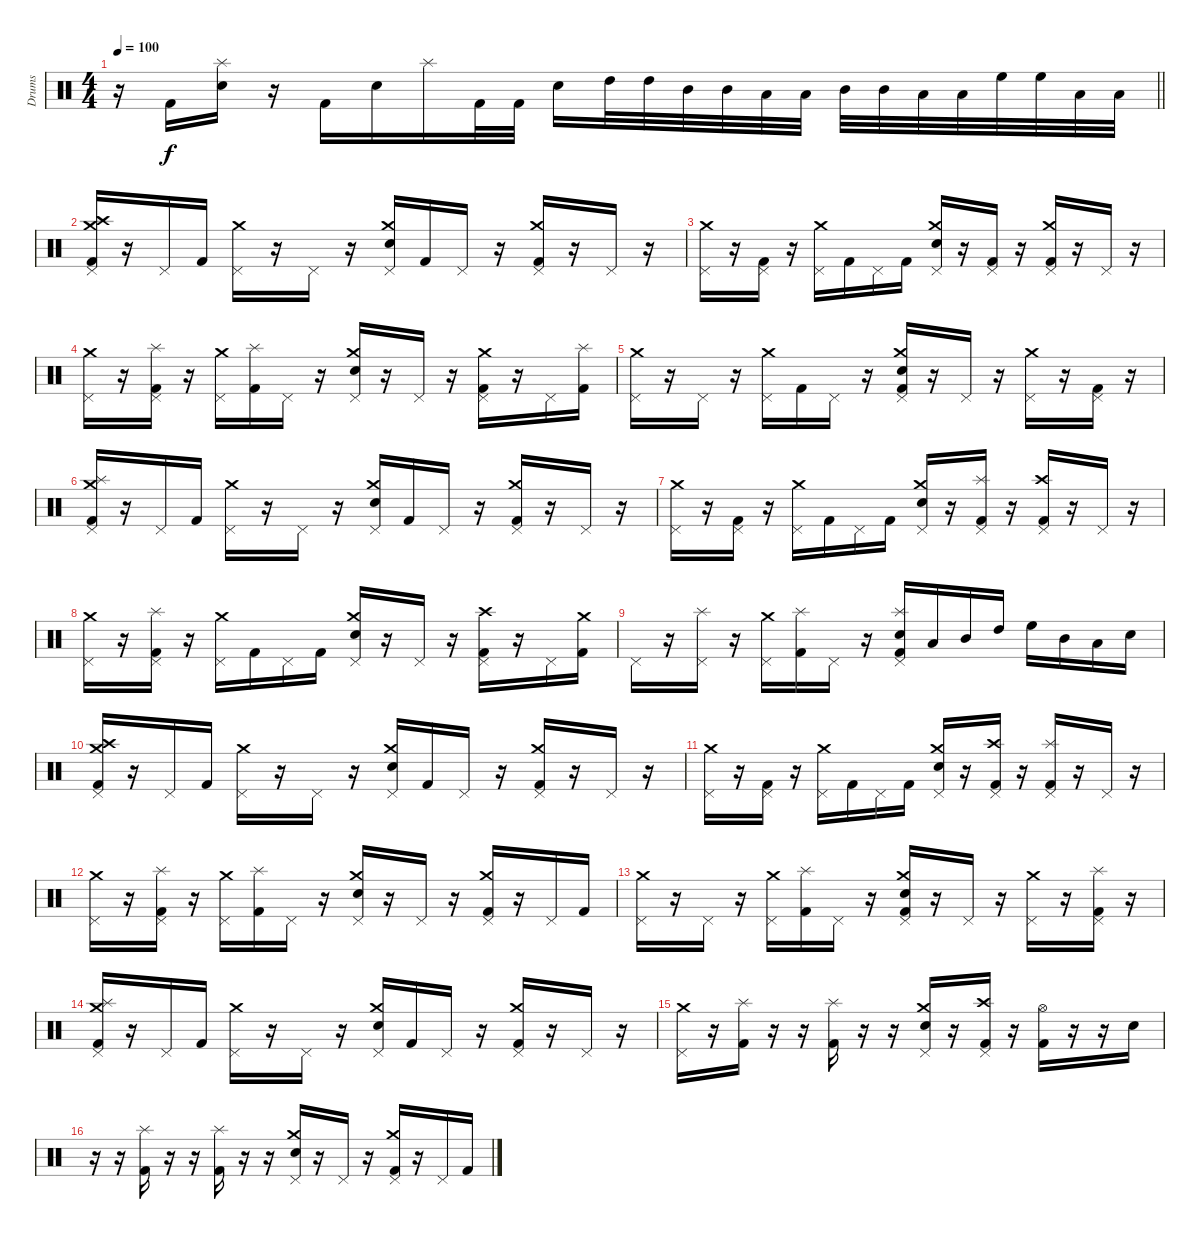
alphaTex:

\track ("Drums" "Drums") {instrument percussion}
\staff {score}
\articulation defaults
\ts (4 4)
\tempo 100
\clef neutral
\barLineRight lightlight
\ks c
r.16{dy f} "Kick (hit) 2".16 ("Splash (hit)" "Electric Snare (hit)").16 r.16 "Kick (hit) 2".16 "Electric Snare (hit)".16 "Splash (hit)".16 "Kick (hit) 2".32 "Kick (hit) 2".32 "Electric Snare (hit)".16 "High Tom (hit)".32 "High Tom (hit)".32 "Mid Tom (hit)".32 "Mid Tom (hit)".32 "Low Tom (hit)".32 "Low Tom (hit)".32 "Mid Tom (hit)".32 "Mid Tom (hit)".32 "Low Tom (hit)".32 "Low Tom (hit)".32 "High Floor Tom (hit)".32 "High Floor Tom (hit)".32 "Low Floor Tom (hit)".32 "Low Floor Tom (hit)".32 |
\section ("" "")
("Crash medium (hit)" "Crash high (hit)" "Pedal Hi-Hat (hit)" "Kick (hit) 2").16 r.16 "Pedal Hi-Hat (hit)".16 "Kick (hit) 2".16 ("Crash medium (hit)" "Pedal Hi-Hat (hit)").16 r.16 "Pedal Hi-Hat (hit)".16 r.16 ("Crash medium (hit)" "Pedal Hi-Hat (hit)" "Electric Snare (hit)").16 "Kick (hit) 2".16 "Pedal Hi-Hat (hit)".16 r.16 ("Crash medium (hit)" "Pedal Hi-Hat (hit)" "Kick (hit) 2").16 r.16 "Pedal Hi-Hat (hit)".16 r.16 |
("Crash medium (hit)" "Pedal Hi-Hat (hit)").16 r.16 ("Pedal Hi-Hat (hit)" "Kick (hit) 2").16 r.16 ("Crash medium (hit)" "Pedal Hi-Hat (hit)").16 "Kick (hit) 2".16 "Pedal Hi-Hat (hit)".16 "Kick (hit) 2".16 ("Crash medium (hit)" "Pedal Hi-Hat (hit)" "Electric Snare (hit)").16 r.16 ("Pedal Hi-Hat (hit)" "Kick (hit) 2").16 r.16 ("Crash medium (hit)" "Pedal Hi-Hat (hit)" "Kick (hit) 2").16 r.16 "Pedal Hi-Hat (hit)".16 r.16 |
("Crash medium (hit)" "Pedal Hi-Hat (hit)").16 r.16 ("Splash (hit)" "Pedal Hi-Hat (hit)" "Kick (hit) 2").16 r.16 ("Crash medium (hit)" "Pedal Hi-Hat (hit)").16 ("Splash (hit)" "Kick (hit) 2").16 "Pedal Hi-Hat (hit)".16 r.16 ("Crash medium (hit)" "Pedal Hi-Hat (hit)" "Electric Snare (hit)").16 r.16 "Pedal Hi-Hat (hit)".16 r.16 ("Crash medium (hit)" "Pedal Hi-Hat (hit)" "Kick (hit) 2").16 r.16 "Pedal Hi-Hat (hit)".16 ("Splash (hit)" "Kick (hit) 2").16 |
("Crash medium (hit)" "Pedal Hi-Hat (hit)").16 r.16 "Pedal Hi-Hat (hit)".16 r.16 ("Crash medium (hit)" "Pedal Hi-Hat (hit)").16 "Kick (hit) 2".16 "Pedal Hi-Hat (hit)".16 r.16 ("Crash medium (hit)" "Pedal Hi-Hat (hit)" "Electric Snare (hit)" "Kick (hit) 2").16 r.16 "Pedal Hi-Hat (hit)".16 r.16 ("Crash medium (hit)" "Pedal Hi-Hat (hit)").16 r.16 ("Pedal Hi-Hat (hit)" "Kick (hit) 2").16 r.16 |
("Crash medium (hit)" "Splash (hit)" "Pedal Hi-Hat (hit)" "Kick (hit) 2").16 r.16 "Pedal Hi-Hat (hit)".16 "Kick (hit) 2".16 ("Crash medium (hit)" "Pedal Hi-Hat (hit)").16 r.16 "Pedal Hi-Hat (hit)".16 r.16 ("Crash medium (hit)" "Pedal Hi-Hat (hit)" "Electric Snare (hit)").16 "Kick (hit) 2".16 "Pedal Hi-Hat (hit)".16 r.16 ("Crash medium (hit)" "Pedal Hi-Hat (hit)" "Kick (hit) 2").16 r.16 "Pedal Hi-Hat (hit)".16 r.16 |
("Crash medium (hit)" "Pedal Hi-Hat (hit)").16 r.16 ("Pedal Hi-Hat (hit)" "Kick (hit) 2").16 r.16 ("Crash medium (hit)" "Pedal Hi-Hat (hit)").16 "Kick (hit) 2".16 "Pedal Hi-Hat (hit)".16 "Kick (hit) 2".16 ("Crash medium (hit)" "Pedal Hi-Hat (hit)" "Electric Snare (hit)").16 r.16 ("Splash (hit)" "Pedal Hi-Hat (hit)" "Kick (hit) 2").16 r.16 ("Crash high (hit)" "Pedal Hi-Hat (hit)" "Kick (hit) 2").16 r.16 "Pedal Hi-Hat (hit)".16 r.16 |
("Crash medium (hit)" "Pedal Hi-Hat (hit)").16 r.16 ("Splash (hit)" "Pedal Hi-Hat (hit)" "Kick (hit) 2").16 r.16 ("Crash medium (hit)" "Pedal Hi-Hat (hit)").16 "Kick (hit) 2".16 "Pedal Hi-Hat (hit)".16 "Kick (hit) 2".16 ("Crash medium (hit)" "Pedal Hi-Hat (hit)" "Electric Snare (hit)").16 r.16 "Pedal Hi-Hat (hit)".16 r.16 ("Crash high (hit)" "Pedal Hi-Hat (hit)" "Kick (hit) 2").16 r.16 "Pedal Hi-Hat (hit)".16 ("Crash medium (hit)" "Kick (hit) 2").16 |
"Pedal Hi-Hat (hit)".16 r.16 ("Splash (hit)" "Pedal Hi-Hat (hit)").16 r.16 ("Crash medium (hit)" "Pedal Hi-Hat (hit)").16 ("Splash (hit)" "Kick (hit) 2").16 "Pedal Hi-Hat (hit)".16 r.16 ("Splash (hit)" "Pedal Hi-Hat (hit)" "Electric Snare (hit)" "Kick (hit) 2").16 "Low Tom (hit)".16 "Mid Tom (hit)".16 "High Tom (hit)".16 "High Floor Tom (hit)".16 "Mid Tom (hit)".16 "Low Tom (hit)".16 "Electric Snare (hit)".16 |
("Crash medium (hit)" "Crash high (hit)" "Pedal Hi-Hat (hit)" "Kick (hit) 2").16 r.16 "Pedal Hi-Hat (hit)".16 "Kick (hit) 2".16 ("Crash medium (hit)" "Pedal Hi-Hat (hit)").16 r.16 "Pedal Hi-Hat (hit)".16 r.16 ("Crash medium (hit)" "Pedal Hi-Hat (hit)" "Electric Snare (hit)").16 "Kick (hit) 2".16 "Pedal Hi-Hat (hit)".16 r.16 ("Crash medium (hit)" "Pedal Hi-Hat (hit)" "Kick (hit) 2").16 r.16 "Pedal Hi-Hat (hit)".16 r.16 |
("Crash medium (hit)" "Pedal Hi-Hat (hit)").16 r.16 ("Pedal Hi-Hat (hit)" "Kick (hit) 2").16 r.16 ("Crash medium (hit)" "Pedal Hi-Hat (hit)").16 "Kick (hit) 2".16 "Pedal Hi-Hat (hit)".16 "Kick (hit) 2".16 ("Crash medium (hit)" "Pedal Hi-Hat (hit)" "Electric Snare (hit)").16 r.16 ("Crash high (hit)" "Pedal Hi-Hat (hit)" "Kick (hit) 2").16 r.16 ("Splash (hit)" "Pedal Hi-Hat (hit)" "Kick (hit) 2").16 r.16 "Pedal Hi-Hat (hit)".16 r.16 |
("Crash medium (hit)" "Pedal Hi-Hat (hit)").16 r.16 ("Splash (hit)" "Pedal Hi-Hat (hit)" "Kick (hit) 2").16 r.16 ("Crash medium (hit)" "Pedal Hi-Hat (hit)").16 ("Splash (hit)" "Kick (hit) 2").16 "Pedal Hi-Hat (hit)".16 r.16 ("Crash medium (hit)" "Pedal Hi-Hat (hit)" "Electric Snare (hit)").16 r.16 "Pedal Hi-Hat (hit)".16 r.16 ("Crash medium (hit)" "Pedal Hi-Hat (hit)" "Kick (hit) 2").16 r.16 "Pedal Hi-Hat (hit)".16 "Kick (hit) 2".16 |
("Crash medium (hit)" "Pedal Hi-Hat (hit)").16 r.16 "Pedal Hi-Hat (hit)".16 r.16 ("Crash medium (hit)" "Pedal Hi-Hat (hit)").16 ("Splash (hit)" "Kick (hit) 2").16 "Pedal Hi-Hat (hit)".16 r.16 ("Crash medium (hit)" "Pedal Hi-Hat (hit)" "Electric Snare (hit)" "Kick (hit) 2").16 r.16 "Pedal Hi-Hat (hit)".16 r.16 ("Crash medium (hit)" "Pedal Hi-Hat (hit)").16 r.16 ("Splash (hit)" "Pedal Hi-Hat (hit)" "Kick (hit) 2").16 r.16 |
("Crash medium (hit)" "Splash (hit)" "Pedal Hi-Hat (hit)" "Kick (hit) 2").16 r.16 "Pedal Hi-Hat (hit)".16 "Kick (hit) 2".16 ("Crash medium (hit)" "Pedal Hi-Hat (hit)").16 r.16 "Pedal Hi-Hat (hit)".16 r.16 ("Crash medium (hit)" "Pedal Hi-Hat (hit)" "Electric Snare (hit)").16 "Kick (hit) 2".16 "Pedal Hi-Hat (hit)".16 r.16 ("Crash medium (hit)" "Pedal Hi-Hat (hit)" "Kick (hit) 2").16 r.16 "Pedal Hi-Hat (hit)".16 r.16 |
("Crash medium (hit)" "Pedal Hi-Hat (hit)").16 r.16 ("Splash (hit)" "Kick (hit) 2").16 r.16 r.16 ("Splash (hit)" "Kick (hit) 2").16 r.16 r.16 ("Crash medium (hit)" "Pedal Hi-Hat (hit)" "Electric Snare (hit)").16 r.16 ("Crash high (hit)" "Pedal Hi-Hat (hit)" "Kick (hit) 2").16 r.16 ("Hi-Hat (open)" "Kick (hit) 2").16 r.16 r.16 "Electric Snare (hit)".16 |
r.16 r.16 ("Splash (hit)" "Kick (hit) 2").16 r.16 r.16 ("Splash (hit)" "Kick (hit) 2").16 r.16 r.16 ("Crash medium (hit)" "Pedal Hi-Hat (hit)" "Electric Snare (hit)").16 r.16 "Pedal Hi-Hat (hit)".16 r.16 ("Crash medium (hit)" "Pedal Hi-Hat (hit)" "Kick (hit) 2").16 r.16 "Pedal Hi-Hat (hit)".16 "Kick (hit) 2".16
